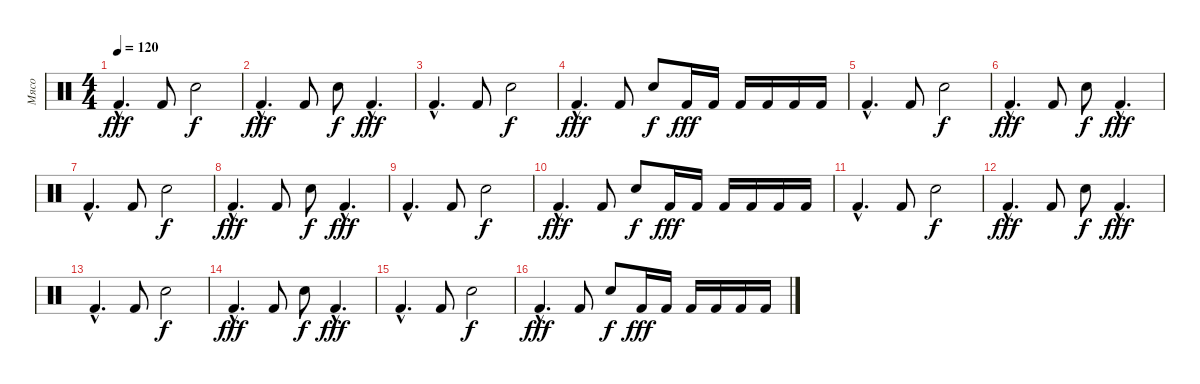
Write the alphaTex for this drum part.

\track ("Мясо" "Мясо") {instrument percussion}
\staff {score}
\articulation defaults
\ts (4 4)
\tempo 120
\clef neutral
\ks c "Kick (hit) 2"{hac}.4{d dy fff} "Kick (hit) 2".8 "Snare (hit) 2".2{dy f}
|
"Kick (hit) 2"{hac}.4{d dy fff} "Kick (hit) 2".8 "Snare (hit) 2".8{dy f} "Kick (hit) 2"{hac}.4{d dy fff} |
"Kick (hit) 2"{hac}.4{d} "Kick (hit) 2".8 "Snare (hit) 2".2{dy f} |
"Kick (hit) 2"{hac}.4{d dy fff} "Kick (hit) 2".8 "Snare (hit) 2".8{dy f} "Kick (hit) 2".16{dy fff} "Kick (hit) 2".16 "Kick (hit) 2".16 "Kick (hit) 2".16 "Kick (hit) 2".16 "Kick (hit) 2".16 |
"Kick (hit) 2"{hac}.4{d} "Kick (hit) 2".8 "Snare (hit) 2".2{dy f} |
"Kick (hit) 2"{hac}.4{d dy fff} "Kick (hit) 2".8 "Snare (hit) 2".8{dy f} "Kick (hit) 2"{hac}.4{d dy fff} |
"Kick (hit) 2"{hac}.4{d} "Kick (hit) 2".8 "Snare (hit) 2".2{dy f} |
"Kick (hit) 2"{hac}.4{d dy fff} "Kick (hit) 2".8 "Snare (hit) 2".8{dy f} "Kick (hit) 2"{hac}.4{d dy fff} |
"Kick (hit) 2"{hac}.4{d} "Kick (hit) 2".8 "Snare (hit) 2".2{dy f} |
"Kick (hit) 2"{hac}.4{d dy fff} "Kick (hit) 2".8 "Snare (hit) 2".8{dy f} "Kick (hit) 2".16{dy fff} "Kick (hit) 2".16 "Kick (hit) 2".16 "Kick (hit) 2".16 "Kick (hit) 2".16 "Kick (hit) 2".16 |
"Kick (hit) 2"{hac}.4{d} "Kick (hit) 2".8 "Snare (hit) 2".2{dy f} |
"Kick (hit) 2"{hac}.4{d dy fff} "Kick (hit) 2".8 "Snare (hit) 2".8{dy f} "Kick (hit) 2"{hac}.4{d dy fff} |
"Kick (hit) 2"{hac}.4{d} "Kick (hit) 2".8 "Snare (hit) 2".2{dy f} |
"Kick (hit) 2"{hac}.4{d dy fff} "Kick (hit) 2".8 "Snare (hit) 2".8{dy f} "Kick (hit) 2"{hac}.4{d dy fff} |
"Kick (hit) 2"{hac}.4{d} "Kick (hit) 2".8 "Snare (hit) 2".2{dy f} |
"Kick (hit) 2"{hac}.4{d dy fff} "Kick (hit) 2".8 "Snare (hit) 2".8{dy f} "Kick (hit) 2".16{dy fff} "Kick (hit) 2".16 "Kick (hit) 2".16 "Kick (hit) 2".16 "Kick (hit) 2".16 "Kick (hit) 2".16
